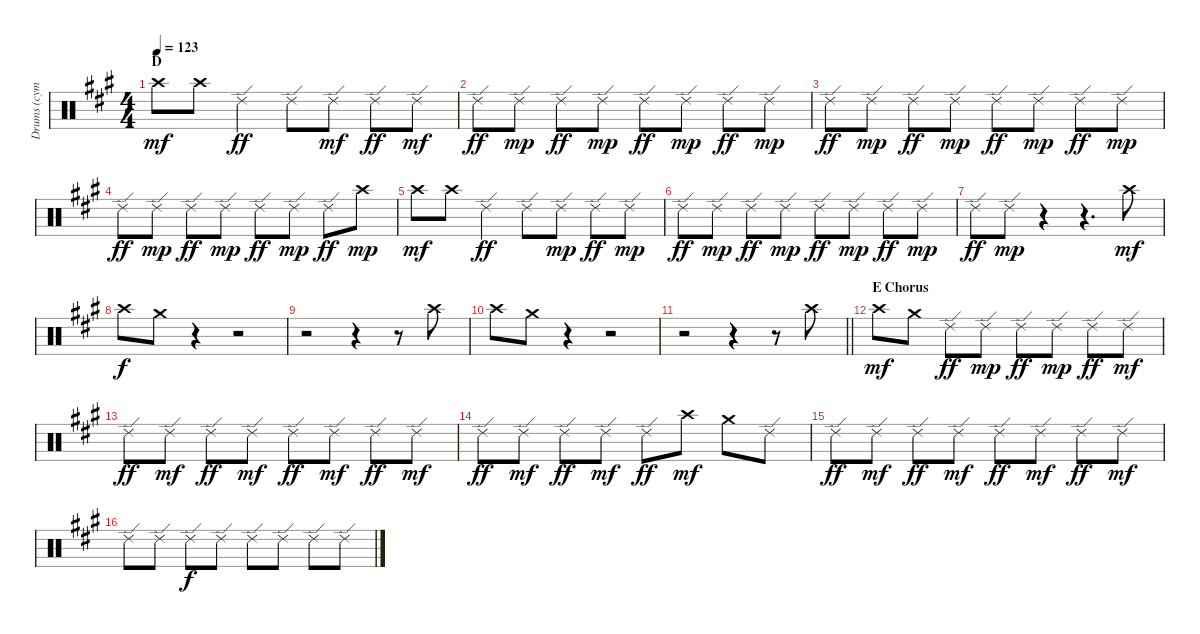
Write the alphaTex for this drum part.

\track ("Drums (cymbals)" "Drums (cym") {instrument percussion}
\staff {score}
\articulation defaults
\ts (4 4)
\section ("" "D")
\tempo 123
\clef neutral
\ks a "Crash high (hit)".8{dy mf} "Crash high (hit)".8 "Ride (edge) 2".4{dy ff} "Ride (edge) 2".8 "Ride (edge) 2".8{dy mf} "Ride (edge) 2".8{dy ff} "Ride (edge) 2".8{dy mf}
|
"Ride (edge) 2".8{dy ff} "Ride (edge) 2".8{dy mp} "Ride (edge) 2".8{dy ff} "Ride (edge) 2".8{dy mp} "Ride (edge) 2".8{dy ff} "Ride (edge) 2".8{dy mp} "Ride (edge) 2".8{dy ff} "Ride (edge) 2".8{dy mp} |
"Ride (edge) 2".8{dy ff} "Ride (edge) 2".8{dy mp} "Ride (edge) 2".8{dy ff} "Ride (edge) 2".8{dy mp} "Ride (edge) 2".8{dy ff} "Ride (edge) 2".8{dy mp} "Ride (edge) 2".8{dy ff} "Ride (edge) 2".8{dy mp} |
"Ride (edge) 2".8{dy ff} "Ride (edge) 2".8{dy mp} "Ride (edge) 2".8{dy ff} "Ride (edge) 2".8{dy mp} "Ride (edge) 2".8{dy ff} "Ride (edge) 2".8{dy mp} "Ride (edge) 2".8{dy ff} "Crash high (hit)".8{dy mp} |
"Crash high (hit)".8{dy mf} "Crash high (hit)".8 "Ride (edge) 2".4{dy ff} "Ride (edge) 2".8 "Ride (edge) 2".8{dy mp} "Ride (edge) 2".8{dy ff} "Ride (edge) 2".8{dy mp} |
"Ride (edge) 2".8{dy ff} "Ride (edge) 2".8{dy mp} "Ride (edge) 2".8{dy ff} "Ride (edge) 2".8{dy mp} "Ride (edge) 2".8{dy ff} "Ride (edge) 2".8{dy mp} "Ride (edge) 2".8{dy ff} "Ride (edge) 2".8{dy mp} |
"Ride (edge) 2".8{dy ff} "Ride (edge) 2".8{dy mp} r.4 r.4{d} "Crash high (hit)".8{dy mf} |
"Crash high (hit)".8{dy f} "Crash medium (hit)".8 r.4 r.2 |
r.2 r.4 r.8 "Crash high (hit)".8 |
"Crash high (hit)".8 "Crash medium (hit)".8 r.4 r.2 |
\barLineRight lightlight
r.2 r.4 r.8 "Crash high (hit)".8 |
\section ("" "E Chorus")
"Crash high (hit)".8{dy mf} "Crash medium (hit)".8 "Ride (edge) 2".8{dy ff} "Ride (edge) 2".8{dy mp} "Ride (edge) 2".8{dy ff} "Ride (edge) 2".8{dy mp} "Ride (edge) 2".8{dy ff} "Ride (edge) 2".8{dy mf} |
"Ride (edge) 2".8{dy ff} "Ride (edge) 2".8{dy mf} "Ride (edge) 2".8{dy ff} "Ride (edge) 2".8{dy mf} "Ride (edge) 2".8{dy ff} "Ride (edge) 2".8{dy mf} "Ride (edge) 2".8{dy ff} "Ride (edge) 2".8{dy mf} |
"Ride (edge) 2".8{dy ff} "Ride (edge) 2".8{dy mf} "Ride (edge) 2".8{dy ff} "Ride (edge) 2".8{dy mf} "Ride (edge) 2".8{dy ff} "Crash high (hit)".8{dy mf} "Crash medium (hit)".8 "Ride (edge) 2".8 |
"Ride (edge) 2".8{dy ff} "Ride (edge) 2".8{dy mf} "Ride (edge) 2".8{dy ff} "Ride (edge) 2".8{dy mf} "Ride (edge) 2".8{dy ff} "Ride (edge) 2".8{dy mf} "Ride (edge) 2".8{dy ff} "Ride (edge) 2".8{dy mf} |
"Ride (edge) 2".8 "Ride (edge) 2".8 "Ride (edge) 2".8{dy f} "Ride (edge) 2".8 "Ride (edge) 2".8 "Ride (edge) 2".8 "Ride (edge) 2".8 "Ride (edge) 2".8
